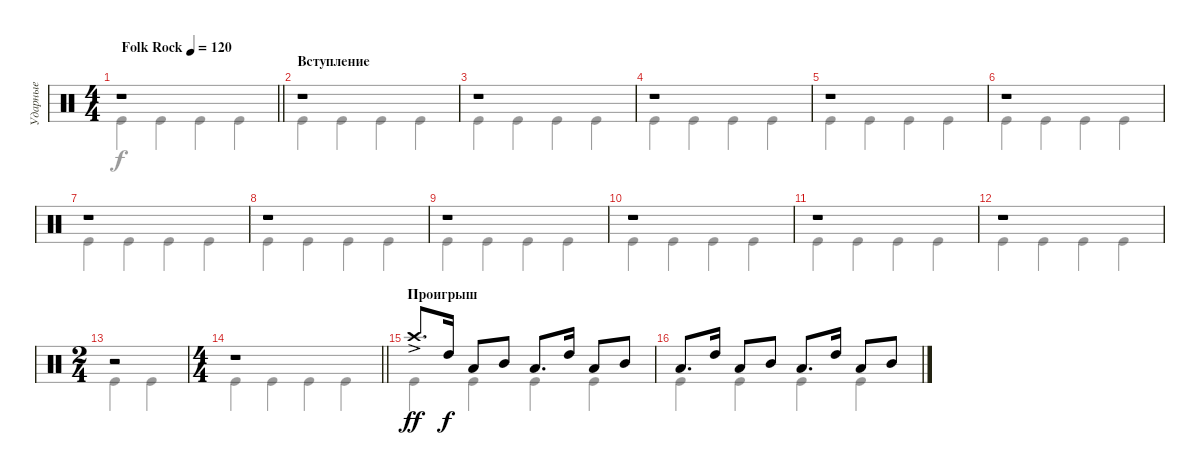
\track ("Ударные" "Ударные") {instrument percussion}
\staff {score}
\articulation defaults
\voice
\ts (4 4)
\tempo (120 "Folk Rock")
\clef neutral
\barLineRight lightlight
\ks c
r.1{dy ff} |
\section ("" "Вступление")
r.1 |
r.1 |
r.1 |
r.1 |
r.1 |
r.1 |
r.1 |
r.1 |
r.1 |
r.1 |
r.1 |
\ts (2 4)
r.2 |
\ts (4 4)
\barLineRight lightlight
r.1 |
\section ("" "Проигрыш")
"Crash high (hit)"{ac}.8{d} "High Tom (hit)".16{dy f} "Low Tom (hit)".8 "Mid Tom (hit)".8 "Low Tom (hit)".8{d} "High Tom (hit)".16 "Low Tom (hit)".8 "Mid Tom (hit)".8 |
"Low Tom (hit)".8{d} "High Tom (hit)".16 "Low Tom (hit)".8 "Mid Tom (hit)".8 "Low Tom (hit)".8{d} "High Tom (hit)".16 "Low Tom (hit)".8 "Mid Tom (hit)".8
\voice
\clef neutral
\ottava regular
\simile none
\barLineRight lightlight
\ks c "Kick (hit)".4{dy f} "Kick (hit)".4 "Kick (hit)".4 "Kick (hit)".4
|
"Kick (hit)".4 "Kick (hit)".4 "Kick (hit)".4 "Kick (hit)".4 |
"Kick (hit)".4 "Kick (hit)".4 "Kick (hit)".4 "Kick (hit)".4 |
"Kick (hit)".4 "Kick (hit)".4 "Kick (hit)".4 "Kick (hit)".4 |
"Kick (hit)".4 "Kick (hit)".4 "Kick (hit)".4 "Kick (hit)".4 |
"Kick (hit)".4 "Kick (hit)".4 "Kick (hit)".4 "Kick (hit)".4 |
"Kick (hit)".4 "Kick (hit)".4 "Kick (hit)".4 "Kick (hit)".4 |
"Kick (hit)".4 "Kick (hit)".4 "Kick (hit)".4 "Kick (hit)".4 |
"Kick (hit)".4 "Kick (hit)".4 "Kick (hit)".4 "Kick (hit)".4 |
"Kick (hit)".4 "Kick (hit)".4 "Kick (hit)".4 "Kick (hit)".4 |
"Kick (hit)".4 "Kick (hit)".4 "Kick (hit)".4 "Kick (hit)".4 |
"Kick (hit)".4 "Kick (hit)".4 "Kick (hit)".4 "Kick (hit)".4 |
"Kick (hit)".4 "Kick (hit)".4 |
\barLineRight lightlight "Kick (hit)".4 "Kick (hit)".4 "Kick (hit)".4 "Kick (hit)".4
|
"Kick (hit)".4 "Kick (hit)".4 "Kick (hit)".4 "Kick (hit)".4 |
"Kick (hit)".4 "Kick (hit)".4 "Kick (hit)".4 "Kick (hit)".4
